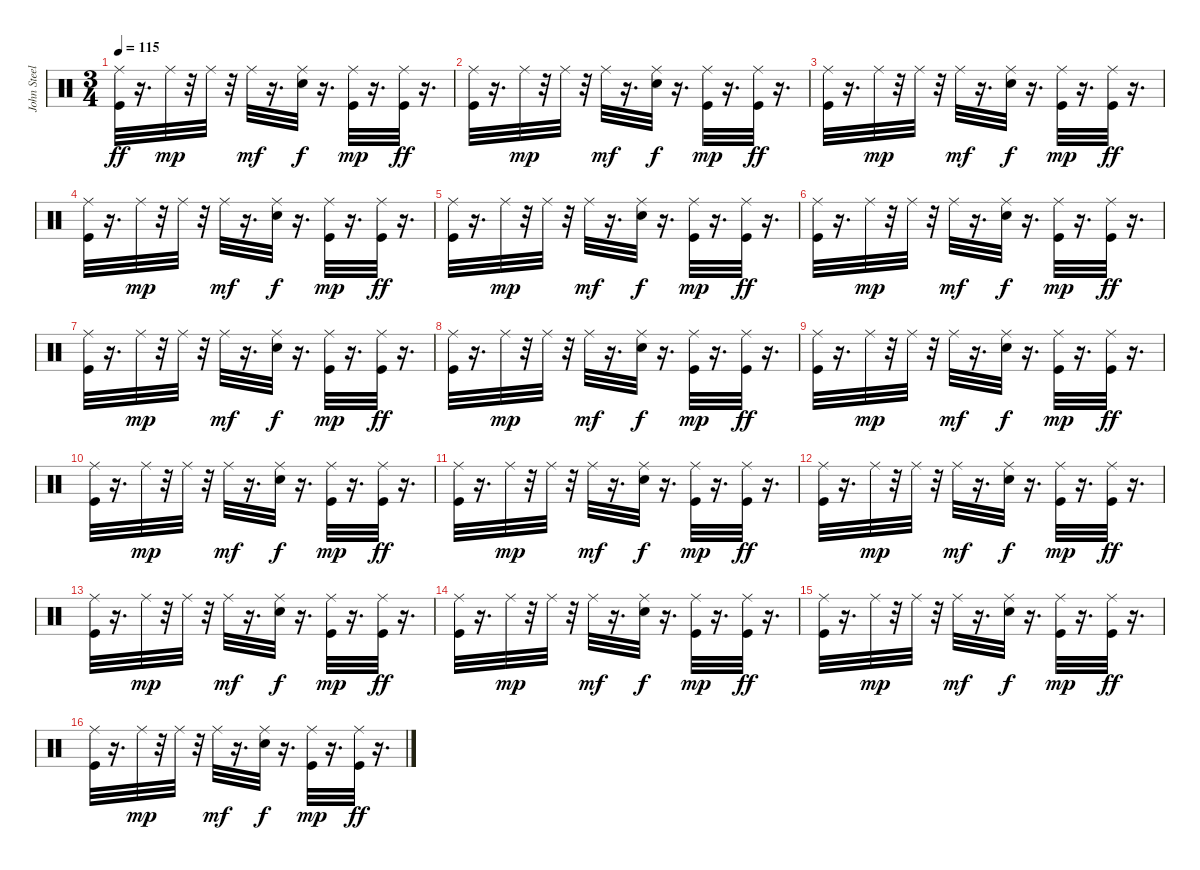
\track ("John Steel" "John Steel") {instrument percussion}
\staff {score}
\articulation defaults
\ts (3 4)
\tempo 115
\clef neutral
\ks c
("Kick (hit)" "Ride (middle)").32{dy ff} r.16{d} "Ride (middle)".32{dy mp} r.32 "Ride (middle)".32 r.32 "Ride (middle)".32{dy mf} r.16{d} ("Snare (hit) 2" "Ride (middle)").32{dy f} r.16{d} ("Kick (hit)" "Ride (middle)").32{dy mp} r.16{d} ("Kick (hit)" "Ride (middle)").32{dy ff} r.16{d} |
("Kick (hit)" "Ride (middle)").32 r.16{d} "Ride (middle)".32{dy mp} r.32 "Ride (middle)".32 r.32 "Ride (middle)".32{dy mf} r.16{d} ("Snare (hit) 2" "Ride (middle)").32{dy f} r.16{d} ("Kick (hit)" "Ride (middle)").32{dy mp} r.16{d} ("Kick (hit)" "Ride (middle)").32{dy ff} r.16{d} |
("Kick (hit)" "Ride (middle)").32 r.16{d} "Ride (middle)".32{dy mp} r.32 "Ride (middle)".32 r.32 "Ride (middle)".32{dy mf} r.16{d} ("Snare (hit) 2" "Ride (middle)").32{dy f} r.16{d} ("Kick (hit)" "Ride (middle)").32{dy mp} r.16{d} ("Kick (hit)" "Ride (middle)").32{dy ff} r.16{d} |
("Kick (hit)" "Ride (middle)").32 r.16{d} "Ride (middle)".32{dy mp} r.32 "Ride (middle)".32 r.32 "Ride (middle)".32{dy mf} r.16{d} ("Snare (hit) 2" "Ride (middle)").32{dy f} r.16{d} ("Kick (hit)" "Ride (middle)").32{dy mp} r.16{d} ("Kick (hit)" "Ride (middle)").32{dy ff} r.16{d} |
("Kick (hit)" "Ride (middle)").32 r.16{d} "Ride (middle)".32{dy mp} r.32 "Ride (middle)".32 r.32 "Ride (middle)".32{dy mf} r.16{d} ("Snare (hit) 2" "Ride (middle)").32{dy f} r.16{d} ("Kick (hit)" "Ride (middle)").32{dy mp} r.16{d} ("Kick (hit)" "Ride (middle)").32{dy ff} r.16{d} |
("Kick (hit)" "Ride (middle)").32 r.16{d} "Ride (middle)".32{dy mp} r.32 "Ride (middle)".32 r.32 "Ride (middle)".32{dy mf} r.16{d} ("Snare (hit) 2" "Ride (middle)").32{dy f} r.16{d} ("Kick (hit)" "Ride (middle)").32{dy mp} r.16{d} ("Kick (hit)" "Ride (middle)").32{dy ff} r.16{d} |
("Kick (hit)" "Ride (middle)").32 r.16{d} "Ride (middle)".32{dy mp} r.32 "Ride (middle)".32 r.32 "Ride (middle)".32{dy mf} r.16{d} ("Snare (hit) 2" "Ride (middle)").32{dy f} r.16{d} ("Kick (hit)" "Ride (middle)").32{dy mp} r.16{d} ("Kick (hit)" "Ride (middle)").32{dy ff} r.16{d} |
("Kick (hit)" "Ride (middle)").32 r.16{d} "Ride (middle)".32{dy mp} r.32 "Ride (middle)".32 r.32 "Ride (middle)".32{dy mf} r.16{d} ("Snare (hit) 2" "Ride (middle)").32{dy f} r.16{d} ("Kick (hit)" "Ride (middle)").32{dy mp} r.16{d} ("Kick (hit)" "Ride (middle)").32{dy ff} r.16{d} |
("Kick (hit)" "Ride (middle)").32 r.16{d} "Ride (middle)".32{dy mp} r.32 "Ride (middle)".32 r.32 "Ride (middle)".32{dy mf} r.16{d} ("Snare (hit) 2" "Ride (middle)").32{dy f} r.16{d} ("Kick (hit)" "Ride (middle)").32{dy mp} r.16{d} ("Kick (hit)" "Ride (middle)").32{dy ff} r.16{d} |
("Kick (hit)" "Ride (middle)").32 r.16{d} "Ride (middle)".32{dy mp} r.32 "Ride (middle)".32 r.32 "Ride (middle)".32{dy mf} r.16{d} ("Snare (hit) 2" "Ride (middle)").32{dy f} r.16{d} ("Kick (hit)" "Ride (middle)").32{dy mp} r.16{d} ("Kick (hit)" "Ride (middle)").32{dy ff} r.16{d} |
("Kick (hit)" "Ride (middle)").32 r.16{d} "Ride (middle)".32{dy mp} r.32 "Ride (middle)".32 r.32 "Ride (middle)".32{dy mf} r.16{d} ("Snare (hit) 2" "Ride (middle)").32{dy f} r.16{d} ("Kick (hit)" "Ride (middle)").32{dy mp} r.16{d} ("Kick (hit)" "Ride (middle)").32{dy ff} r.16{d} |
("Kick (hit)" "Ride (middle)").32 r.16{d} "Ride (middle)".32{dy mp} r.32 "Ride (middle)".32 r.32 "Ride (middle)".32{dy mf} r.16{d} ("Snare (hit) 2" "Ride (middle)").32{dy f} r.16{d} ("Kick (hit)" "Ride (middle)").32{dy mp} r.16{d} ("Kick (hit)" "Ride (middle)").32{dy ff} r.16{d} |
("Kick (hit)" "Ride (middle)").32 r.16{d} "Ride (middle)".32{dy mp} r.32 "Ride (middle)".32 r.32 "Ride (middle)".32{dy mf} r.16{d} ("Snare (hit) 2" "Ride (middle)").32{dy f} r.16{d} ("Kick (hit)" "Ride (middle)").32{dy mp} r.16{d} ("Kick (hit)" "Ride (middle)").32{dy ff} r.16{d} |
("Kick (hit)" "Ride (middle)").32 r.16{d} "Ride (middle)".32{dy mp} r.32 "Ride (middle)".32 r.32 "Ride (middle)".32{dy mf} r.16{d} ("Snare (hit) 2" "Ride (middle)").32{dy f} r.16{d} ("Kick (hit)" "Ride (middle)").32{dy mp} r.16{d} ("Kick (hit)" "Ride (middle)").32{dy ff} r.16{d} |
("Kick (hit)" "Ride (middle)").32 r.16{d} "Ride (middle)".32{dy mp} r.32 "Ride (middle)".32 r.32 "Ride (middle)".32{dy mf} r.16{d} ("Snare (hit) 2" "Ride (middle)").32{dy f} r.16{d} ("Kick (hit)" "Ride (middle)").32{dy mp} r.16{d} ("Kick (hit)" "Ride (middle)").32{dy ff} r.16{d} |
("Kick (hit)" "Ride (middle)").32 r.16{d} "Ride (middle)".32{dy mp} r.32 "Ride (middle)".32 r.32 "Ride (middle)".32{dy mf} r.16{d} ("Snare (hit) 2" "Ride (middle)").32{dy f} r.16{d} ("Kick (hit)" "Ride (middle)").32{dy mp} r.16{d} ("Kick (hit)" "Ride (middle)").32{dy ff} r.16{d}
